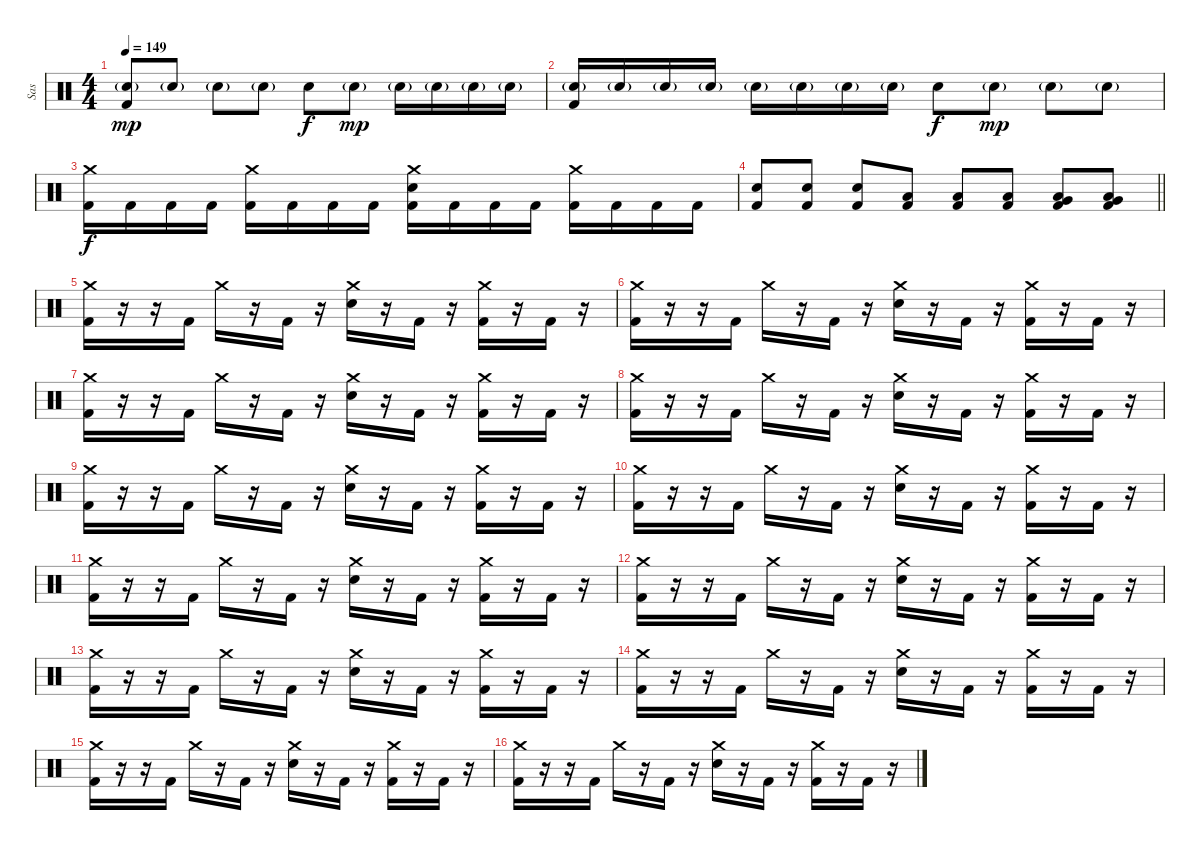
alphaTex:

\track ("Sas" "Sas") {instrument percussion}
\staff {score}
\articulation defaults
\ts (4 4)
\tempo 149
\clef neutral
\ks c
("Snare (hit) 2"{g} "Kick (hit) 2").8{dy mp} "Snare (hit) 2"{g}.8 "Snare (hit) 2"{g}.8 "Snare (hit) 2"{g}.8 "Snare (hit) 2".8{dy f} "Snare (hit) 2"{g}.8{dy mp} "Snare (hit) 2"{g}.16 "Snare (hit) 2"{g}.16 "Snare (hit) 2"{g}.16 "Snare (hit) 2"{g}.16 |
("Snare (hit) 2"{g} "Kick (hit) 2").16 "Snare (hit) 2"{g}.16 "Snare (hit) 2"{g}.16 "Snare (hit) 2"{g}.16 "Snare (hit) 2"{g}.16 "Snare (hit) 2"{g}.16 "Snare (hit) 2"{g}.16 "Snare (hit) 2"{g}.16 "Snare (hit) 2".8{dy f} "Snare (hit) 2"{g}.8{dy mp} "Snare (hit) 2"{g}.8 "Snare (hit) 2"{g}.8 |
("Crash medium (hit)" "Kick (hit) 2").16{dy f} "Kick (hit) 2".16 "Kick (hit) 2".16 "Kick (hit) 2".16 ("Crash medium (hit)" "Kick (hit) 2").16 "Kick (hit) 2".16 "Kick (hit) 2".16 "Kick (hit) 2".16 ("Crash medium (hit)" "Snare (hit) 2" "Kick (hit) 2").16 "Kick (hit) 2".16 "Kick (hit) 2".16 "Kick (hit) 2".16 ("Crash medium (hit)" "Kick (hit) 2").16 "Kick (hit) 2".16 "Kick (hit) 2".16 "Kick (hit) 2".16 |
\barLineRight lightlight
("Snare (hit) 2" "Kick (hit) 2").8 ("Snare (hit) 2" "Kick (hit) 2").8 ("Snare (hit) 2" "Kick (hit) 2").8 ("Low Tom (hit)" "Kick (hit) 2").8 ("Low Tom (hit)" "Kick (hit) 2").8 ("Low Tom (hit)" "Kick (hit) 2").8 ("Low Tom (hit)" "Very Low Tom (hit)" "Kick (hit) 2").8 ("Low Tom (hit)" "Very Low Tom (hit)" "Kick (hit) 2").8 |
("Crash medium (hit)" "Kick (hit) 2").16 r.16 r.16 "Kick (hit) 2".16 "Crash medium (hit)".16 r.16 "Kick (hit) 2".16 r.16 ("Crash medium (hit)" "Snare (hit) 2").16 r.16 "Kick (hit) 2".16 r.16 ("Crash medium (hit)" "Kick (hit) 2").16 r.16 "Kick (hit) 2".16 r.16 |
("Crash medium (hit)" "Kick (hit) 2").16 r.16 r.16 "Kick (hit) 2".16 "Crash medium (hit)".16 r.16 "Kick (hit) 2".16 r.16 ("Crash medium (hit)" "Snare (hit) 2").16 r.16 "Kick (hit) 2".16 r.16 ("Crash medium (hit)" "Kick (hit) 2").16 r.16 "Kick (hit) 2".16 r.16 |
("Crash medium (hit)" "Kick (hit) 2").16 r.16 r.16 "Kick (hit) 2".16 "Crash medium (hit)".16 r.16 "Kick (hit) 2".16 r.16 ("Crash medium (hit)" "Snare (hit) 2").16 r.16 "Kick (hit) 2".16 r.16 ("Crash medium (hit)" "Kick (hit) 2").16 r.16 "Kick (hit) 2".16 r.16 |
("Crash medium (hit)" "Kick (hit) 2").16 r.16 r.16 "Kick (hit) 2".16 "Crash medium (hit)".16 r.16 "Kick (hit) 2".16 r.16 ("Crash medium (hit)" "Snare (hit) 2").16 r.16 "Kick (hit) 2".16 r.16 ("Crash medium (hit)" "Kick (hit) 2").16 r.16 "Kick (hit) 2".16 r.16 |
("Crash medium (hit)" "Kick (hit) 2").16 r.16 r.16 "Kick (hit) 2".16 "Crash medium (hit)".16 r.16 "Kick (hit) 2".16 r.16 ("Crash medium (hit)" "Snare (hit) 2").16 r.16 "Kick (hit) 2".16 r.16 ("Crash medium (hit)" "Kick (hit) 2").16 r.16 "Kick (hit) 2".16 r.16 |
("Crash medium (hit)" "Kick (hit) 2").16 r.16 r.16 "Kick (hit) 2".16 "Crash medium (hit)".16 r.16 "Kick (hit) 2".16 r.16 ("Crash medium (hit)" "Snare (hit) 2").16 r.16 "Kick (hit) 2".16 r.16 ("Crash medium (hit)" "Kick (hit) 2").16 r.16 "Kick (hit) 2".16 r.16 |
("Crash medium (hit)" "Kick (hit) 2").16 r.16 r.16 "Kick (hit) 2".16 "Crash medium (hit)".16 r.16 "Kick (hit) 2".16 r.16 ("Crash medium (hit)" "Snare (hit) 2").16 r.16 "Kick (hit) 2".16 r.16 ("Crash medium (hit)" "Kick (hit) 2").16 r.16 "Kick (hit) 2".16 r.16 |
("Crash medium (hit)" "Kick (hit) 2").16 r.16 r.16 "Kick (hit) 2".16 "Crash medium (hit)".16 r.16 "Kick (hit) 2".16 r.16 ("Crash medium (hit)" "Snare (hit) 2").16 r.16 "Kick (hit) 2".16 r.16 ("Crash medium (hit)" "Kick (hit) 2").16 r.16 "Kick (hit) 2".16 r.16 |
("Crash medium (hit)" "Kick (hit) 2").16 r.16 r.16 "Kick (hit) 2".16 "Crash medium (hit)".16 r.16 "Kick (hit) 2".16 r.16 ("Crash medium (hit)" "Snare (hit) 2").16 r.16 "Kick (hit) 2".16 r.16 ("Crash medium (hit)" "Kick (hit) 2").16 r.16 "Kick (hit) 2".16 r.16 |
("Crash medium (hit)" "Kick (hit) 2").16 r.16 r.16 "Kick (hit) 2".16 "Crash medium (hit)".16 r.16 "Kick (hit) 2".16 r.16 ("Crash medium (hit)" "Snare (hit) 2").16 r.16 "Kick (hit) 2".16 r.16 ("Crash medium (hit)" "Kick (hit) 2").16 r.16 "Kick (hit) 2".16 r.16 |
("Crash medium (hit)" "Kick (hit) 2").16 r.16 r.16 "Kick (hit) 2".16 "Crash medium (hit)".16 r.16 "Kick (hit) 2".16 r.16 ("Crash medium (hit)" "Snare (hit) 2").16 r.16 "Kick (hit) 2".16 r.16 ("Crash medium (hit)" "Kick (hit) 2").16 r.16 "Kick (hit) 2".16 r.16 |
("Crash medium (hit)" "Kick (hit) 2").16 r.16 r.16 "Kick (hit) 2".16 "Crash medium (hit)".16 r.16 "Kick (hit) 2".16 r.16 ("Crash medium (hit)" "Snare (hit) 2").16 r.16 "Kick (hit) 2".16 r.16 ("Crash medium (hit)" "Kick (hit) 2").16 r.16 "Kick (hit) 2".16 r.16
